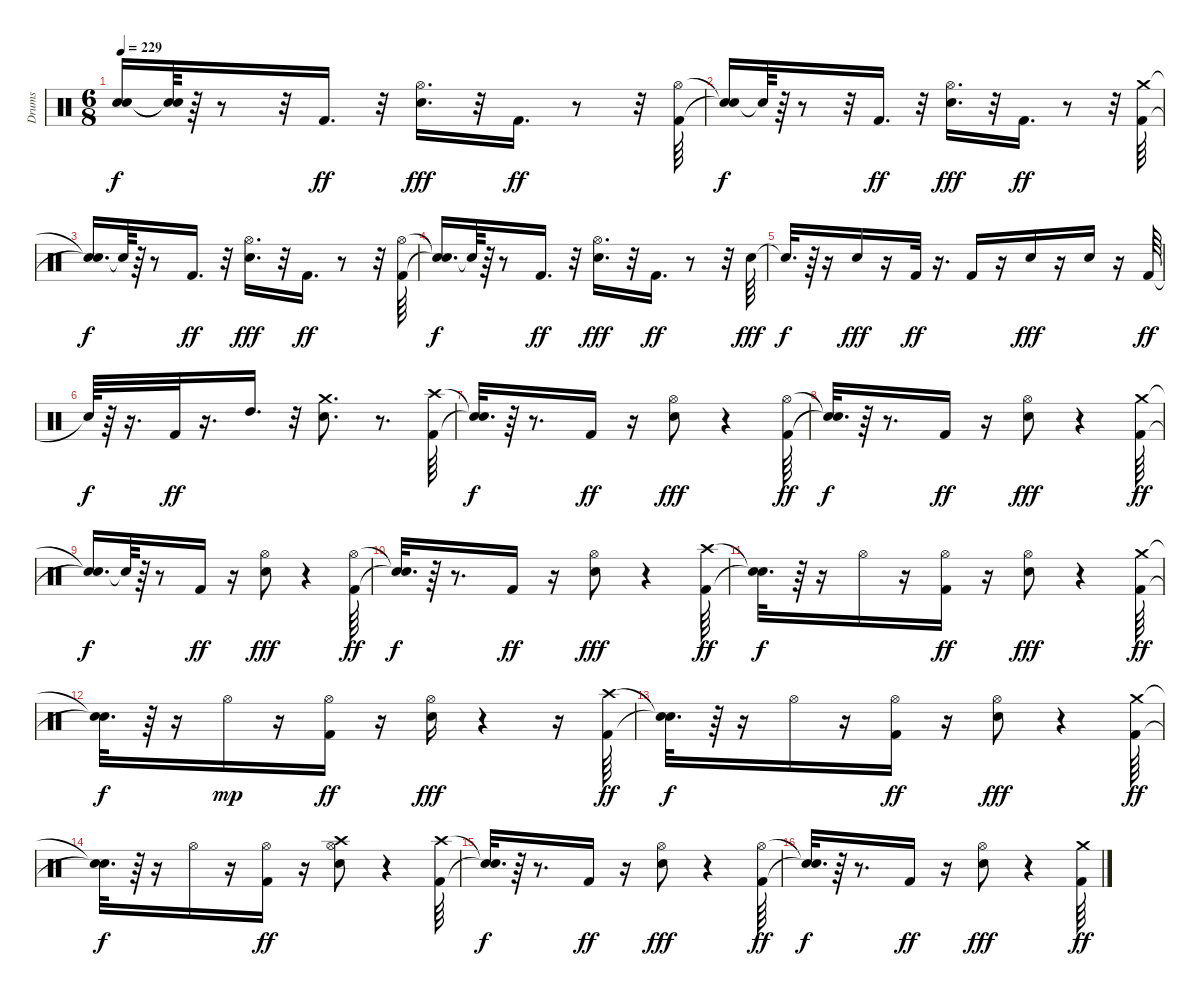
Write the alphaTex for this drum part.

\track ("Drums" "Drums") {instrument percussion}
\staff {score}
\articulation defaults
\ts (6 8)
\tempo 229
\clef neutral
\ks c
("Snare (hit)"{t} "Snare (hit)"{t}).16{dy f} ("Snare (hit)"{t} "Snare (hit)"{t}).64 r.64 r.8 r.32 "Kick (hit) 2".16{d dy ff} r.32 ("Snare (hit) 2" "Hi-Hat (open)").16{d dy fff} r.32 "Kick (hit) 2".16{d dy ff} r.8 r.32 ("Kick (hit) 2" "Hi-Hat (open)").64 |
("Snare (hit)"{t} "Snare (hit)"{t}).16{dy f} "Snare (hit)"{t}.64 r.64 r.8 r.32 "Kick (hit) 2".16{d dy ff} r.32 ("Snare (hit) 2" "Hi-Hat (open)").16{d dy fff} r.32 "Kick (hit) 2".16{d dy ff} r.8 r.32 ("Kick (hit) 2" "Crash medium (hit)").64 |
("Snare (hit)"{t} "Snare (hit)"{t}).16{d dy f} "Snare (hit)"{t}.64 r.64 r.8 "Kick (hit) 2".16{d dy ff} r.32 ("Snare (hit) 2" "Hi-Hat (open)").16{d dy fff} r.32 "Kick (hit) 2".16{d dy ff} r.8 r.32 ("Kick (hit) 2" "Hi-Hat (open)").64 |
("Snare (hit)"{t} "Snare (hit)"{t}).16{d dy f} "Snare (hit)"{t}.64 r.64 r.8 "Kick (hit) 2".16{d dy ff} r.32 ("Snare (hit) 2" "Hi-Hat (open)").16{d dy fff} r.32 "Kick (hit) 2".16{d dy ff} r.8 r.32 "Snare (hit) 2".64{dy fff} |
"Snare (hit)"{t}.32{d dy f} r.64 r.16 "Snare (hit) 2".16{dy fff} r.16 "Kick (hit) 2".32{dy ff} r.16{d} "Kick (hit) 2".16 r.16 "Snare (hit) 2".16{dy fff} r.16 "Snare (hit) 2".16 r.16 "Kick (hit) 2".64{dy ff} |
"Snare (hit)"{t}.64{dy f} r.64 r.16{d} "Kick (hit) 2".32{dy ff} r.16{d} "High Tom (hit)".16{d} r.32 ("Snare (hit) 2" "Crash medium (hit)").8{d} r.8{d} ("Kick (hit) 2" "Crash high (hit)").64 |
("Snare (hit)"{t} "Snare (hit)"{t}).32{d dy f} r.64 r.8{d} "Kick (hit) 2".16{dy ff} r.16 ("Snare (hit) 2" "Hi-Hat (open)").8{dy fff} r.4 ("Kick (hit) 2" "Hi-Hat (open)").64{dy ff} |
("Snare (hit)"{t} "Snare (hit)"{t}).32{d dy f} r.64 r.8{d} "Kick (hit) 2".16{dy ff} r.16 ("Snare (hit) 2" "Hi-Hat (open)").8{dy fff} r.4 ("Kick (hit) 2" "Crash medium (hit)").64{dy ff} |
("Snare (hit)"{t} "Snare (hit)"{t}).16{d dy f} "Snare (hit)"{t}.64 r.64 r.8 "Kick (hit) 2".16{dy ff} r.16 ("Snare (hit) 2" "Hi-Hat (open)").8{dy fff} r.4 ("Kick (hit) 2" "Hi-Hat (open)").64{dy ff} |
("Snare (hit)"{t} "Snare (hit)"{t}).32{d dy f} r.64 r.8{d} "Kick (hit) 2".16{dy ff} r.16 ("Snare (hit) 2" "Hi-Hat (open)").8{dy fff} r.4 ("Kick (hit) 2" "Crash high (hit)").64{dy ff} |
("Snare (hit)"{t} "Snare (hit)"{t}).32{d dy f} r.64 r.16 "Hi-Hat (open)".16 r.16 ("Kick (hit) 2" "Hi-Hat (open)").16{dy ff} r.16 ("Snare (hit) 2" "Hi-Hat (open)").8{dy fff} r.4 ("Kick (hit) 2" "Crash medium (hit)").64{dy ff} |
("Snare (hit)"{t} "Snare (hit)"{t}).32{d dy f} r.64 r.16 "Hi-Hat (open)".16{dy mp} r.16 ("Kick (hit) 2" "Hi-Hat (open)").16{dy ff} r.16 ("Snare (hit) 2" "Hi-Hat (open)").16{dy fff} r.4 r.16 ("Kick (hit) 2" "Crash high (hit)").64{dy ff} |
("Snare (hit)"{t} "Snare (hit)"{t}).32{d dy f} r.64 r.16 "Hi-Hat (open)".16 r.16 ("Kick (hit) 2" "Hi-Hat (open)").16{dy ff} r.16 ("Snare (hit) 2" "Hi-Hat (open)").8{dy fff} r.4 ("Kick (hit) 2" "Crash medium (hit)").64{dy ff} |
("Snare (hit)"{t} "Snare (hit)"{t}).32{d dy f} r.64 r.16 "Hi-Hat (open)".16 r.16 ("Kick (hit) 2" "Hi-Hat (open)").16{dy ff} r.16 ("Snare (hit) 2" "Hi-Hat (open)" "Crash high (hit)").8 r.4 ("Kick (hit) 2" "Crash high (hit)").64 |
("Snare (hit)"{t} "Snare (hit)"{t}).32{d dy f} r.64 r.8{d} "Kick (hit) 2".16{dy ff} r.16 ("Snare (hit) 2" "Hi-Hat (open)").8{dy fff} r.4 ("Kick (hit) 2" "Hi-Hat (open)").64{dy ff} |
("Snare (hit)"{t} "Snare (hit)"{t}).32{d dy f} r.64 r.8{d} "Kick (hit) 2".16{dy ff} r.16 ("Snare (hit) 2" "Hi-Hat (open)").8{dy fff} r.4 ("Kick (hit) 2" "Crash medium (hit)").64{dy ff}
